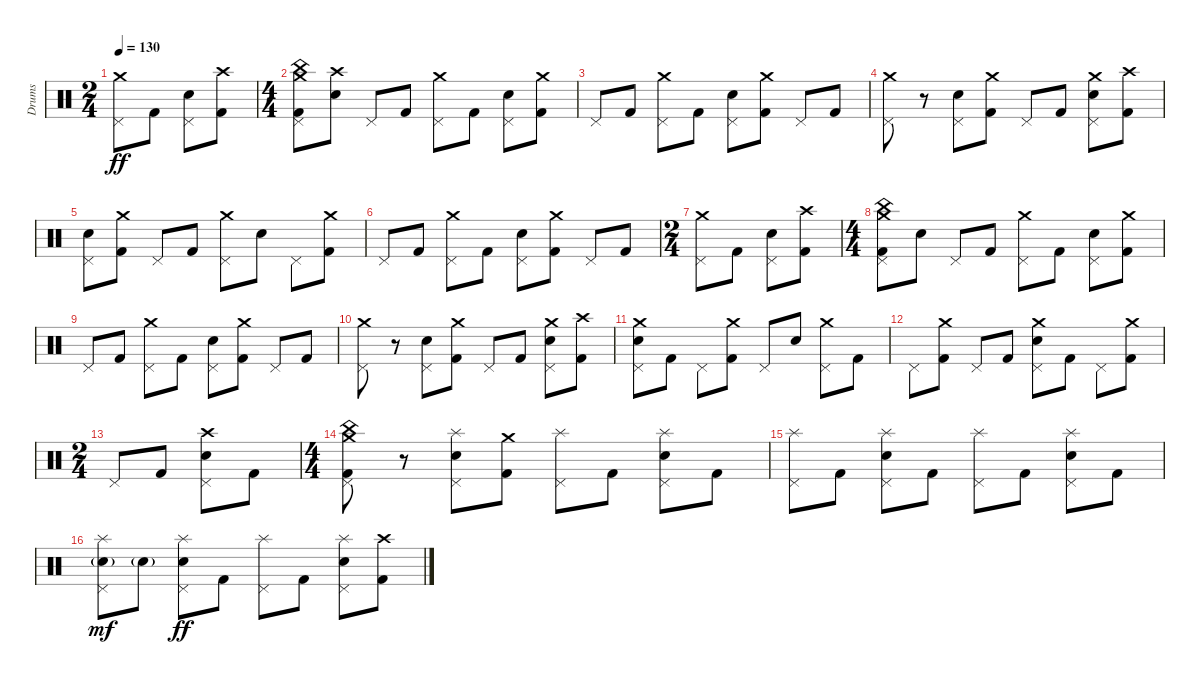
\track ("Drums" "Drums") {instrument percussion}
\staff {score}
\articulation defaults
\ts (2 4)
\tempo 130
\clef neutral
\ks c
("Crash medium (hit)" "Pedal Hi-Hat (hit)").8{dy ff} "Kick (hit) 2".8 ("Pedal Hi-Hat (hit)" "Electric Snare (hit)").8 ("Crash high (hit)" "Kick (hit) 2").8 |
\ts (4 4)
("Crash medium (hit)" "China (hit)" "Pedal Hi-Hat (hit)" "Kick (hit) 2").8 ("Crash high (hit)" "Electric Snare (hit)").8 "Pedal Hi-Hat (hit)".8 "Kick (hit) 2".8 ("Crash medium (hit)" "Pedal Hi-Hat (hit)").8 "Kick (hit) 2".8 ("Pedal Hi-Hat (hit)" "Electric Snare (hit)").8 ("Crash medium (hit)" "Kick (hit) 2").8 |
"Pedal Hi-Hat (hit)".8 "Kick (hit) 2".8 ("Crash medium (hit)" "Pedal Hi-Hat (hit)").8 "Kick (hit) 2".8 ("Pedal Hi-Hat (hit)" "Electric Snare (hit)").8 ("Crash medium (hit)" "Kick (hit) 2").8 "Pedal Hi-Hat (hit)".8 "Kick (hit) 2".8 |
("Crash medium (hit)" "Pedal Hi-Hat (hit)").8 r.8 ("Pedal Hi-Hat (hit)" "Electric Snare (hit)").8 ("Crash medium (hit)" "Kick (hit) 2").8 "Pedal Hi-Hat (hit)".8 "Kick (hit) 2".8 ("Crash medium (hit)" "Pedal Hi-Hat (hit)" "Electric Snare (hit)").8 ("Crash high (hit)" "Kick (hit) 2").8 |
("Pedal Hi-Hat (hit)" "Electric Snare (hit)").8 ("Crash medium (hit)" "Kick (hit) 2").8 "Pedal Hi-Hat (hit)".8 "Kick (hit) 2".8 ("Crash medium (hit)" "Pedal Hi-Hat (hit)").8 "Electric Snare (hit)".8 "Pedal Hi-Hat (hit)".8 ("Crash medium (hit)" "Kick (hit) 2").8 |
"Pedal Hi-Hat (hit)".8 "Kick (hit) 2".8 ("Crash medium (hit)" "Pedal Hi-Hat (hit)").8 "Kick (hit) 2".8 ("Pedal Hi-Hat (hit)" "Electric Snare (hit)").8 ("Crash medium (hit)" "Kick (hit) 2").8 "Pedal Hi-Hat (hit)".8 "Kick (hit) 2".8 |
\ts (2 4)
("Crash medium (hit)" "Pedal Hi-Hat (hit)").8 "Kick (hit) 2".8 ("Pedal Hi-Hat (hit)" "Electric Snare (hit)").8 ("Crash high (hit)" "Kick (hit) 2").8 |
\ts (4 4)
("Crash medium (hit)" "China (hit)" "Pedal Hi-Hat (hit)" "Kick (hit) 2").8 "Electric Snare (hit)".8 "Pedal Hi-Hat (hit)".8 "Kick (hit) 2".8 ("Crash medium (hit)" "Pedal Hi-Hat (hit)").8 "Kick (hit) 2".8 ("Pedal Hi-Hat (hit)" "Electric Snare (hit)").8 ("Crash medium (hit)" "Kick (hit) 2").8 |
"Pedal Hi-Hat (hit)".8 "Kick (hit) 2".8 ("Crash medium (hit)" "Pedal Hi-Hat (hit)").8 "Kick (hit) 2".8 ("Pedal Hi-Hat (hit)" "Electric Snare (hit)").8 ("Crash medium (hit)" "Kick (hit) 2").8 "Pedal Hi-Hat (hit)".8 "Kick (hit) 2".8 |
("Crash medium (hit)" "Pedal Hi-Hat (hit)").8 r.8 ("Pedal Hi-Hat (hit)" "Electric Snare (hit)").8 ("Crash medium (hit)" "Kick (hit) 2").8 "Pedal Hi-Hat (hit)".8 "Kick (hit) 2".8 ("Crash medium (hit)" "Pedal Hi-Hat (hit)" "Electric Snare (hit)").8 ("Crash high (hit)" "Kick (hit) 2").8 |
("Crash medium (hit)" "Pedal Hi-Hat (hit)" "Electric Snare (hit)").8 "Kick (hit) 2".8 "Pedal Hi-Hat (hit)".8 ("Crash medium (hit)" "Kick (hit) 2").8 "Pedal Hi-Hat (hit)".8 "Electric Snare (hit)".8 ("Crash medium (hit)" "Pedal Hi-Hat (hit)").8 "Kick (hit) 2".8 |
"Pedal Hi-Hat (hit)".8 ("Crash medium (hit)" "Kick (hit) 2").8 "Pedal Hi-Hat (hit)".8 "Kick (hit) 2".8 ("Crash medium (hit)" "Pedal Hi-Hat (hit)" "Electric Snare (hit)").8 "Kick (hit) 2".8 "Pedal Hi-Hat (hit)".8 ("Crash medium (hit)" "Kick (hit) 2").8 |
\ts (2 4)
"Pedal Hi-Hat (hit)".8 "Kick (hit) 2".8 ("Crash high (hit)" "Pedal Hi-Hat (hit)" "Electric Snare (hit)").8 "Kick (hit) 2".8 |
\ts (4 4)
("Crash medium (hit)" "China (hit)" "Pedal Hi-Hat (hit)" "Kick (hit) 2").8 r.8 ("Splash (hit)" "Pedal Hi-Hat (hit)" "Electric Snare (hit)").8 ("Crash medium (hit)" "Kick (hit) 2").8 ("Splash (hit)" "Pedal Hi-Hat (hit)").8 "Kick (hit) 2".8 ("Splash (hit)" "Pedal Hi-Hat (hit)" "Electric Snare (hit)").8 "Kick (hit) 2".8 |
("Splash (hit)" "Pedal Hi-Hat (hit)").8 "Kick (hit) 2".8 ("Splash (hit)" "Pedal Hi-Hat (hit)" "Electric Snare (hit)").8 "Kick (hit) 2".8 ("Splash (hit)" "Pedal Hi-Hat (hit)").8 "Kick (hit) 2".8 ("Splash (hit)" "Pedal Hi-Hat (hit)" "Electric Snare (hit)").8 "Kick (hit) 2".8 |
("Splash (hit)" "Pedal Hi-Hat (hit)" "Electric Snare (hit)"{g}).8{dy mf} "Electric Snare (hit)"{g}.8 ("Splash (hit)" "Pedal Hi-Hat (hit)" "Electric Snare (hit)").8{dy ff} "Kick (hit) 2".8 ("Splash (hit)" "Pedal Hi-Hat (hit)").8 "Kick (hit) 2".8 ("Splash (hit)" "Pedal Hi-Hat (hit)" "Electric Snare (hit)").8 ("Crash high (hit)" "Kick (hit) 2").8
